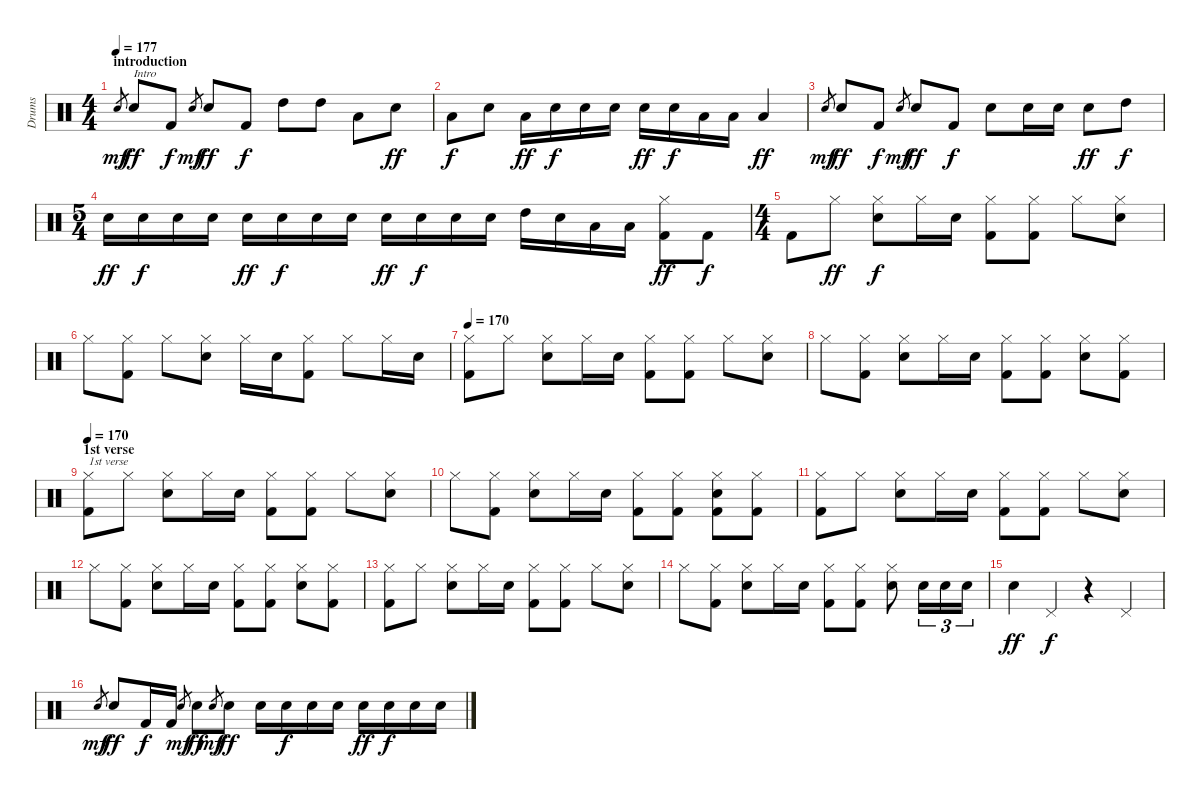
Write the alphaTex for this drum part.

\track ("Drums" "Drums") {instrument percussion}
\staff {score}
\articulation defaults
\ts (4 4)
\section ("" "introduction")
\tempo 177
\tempo 182
\tempo 177
\clef neutral
\ks c "Electric Snare (hit)".8{gr dy mf} "Electric Snare (hit)".8{txt "Intro" dy ff} "Kick (hit) 2".8{dy f} "Electric Snare (hit)".8{gr dy mf} "Electric Snare (hit)".8{dy ff} "Kick (hit) 2".8{dy f} "High Tom (hit)".8 "High Tom (hit)".8 "Low Tom (hit)".8 "Electric Snare (hit)".8{dy ff}
|
"Low Tom (hit)".8{dy f} "Electric Snare (hit)".8 "Low Tom (hit)".16{dy ff} "Electric Snare (hit)".16{dy f} "Electric Snare (hit)".16 "Electric Snare (hit)".16 "Electric Snare (hit)".16{dy ff} "Electric Snare (hit)".16{dy f} "Low Tom (hit)".16 "Low Tom (hit)".16 "Low Tom (hit)".4{dy ff} |
"Electric Snare (hit)".8{gr dy mf} "Electric Snare (hit)".8{dy ff} "Kick (hit) 2".8{dy f} "Electric Snare (hit)".8{gr dy mf} "Electric Snare (hit)".8{dy ff} "Kick (hit) 2".8{dy f} "Electric Snare (hit)".8 "Electric Snare (hit)".16 "Electric Snare (hit)".16 "Electric Snare (hit)".8{dy ff} "High Tom (hit)".8{dy f} |
\ts (5 4)
"Electric Snare (hit)".16{dy ff} "Electric Snare (hit)".16{dy f} "Electric Snare (hit)".16 "Electric Snare (hit)".16 "Electric Snare (hit)".16{dy ff} "Electric Snare (hit)".16{dy f} "Electric Snare (hit)".16 "Electric Snare (hit)".16 "Electric Snare (hit)".16{dy ff} "Electric Snare (hit)".16{dy f} "Electric Snare (hit)".16 "Electric Snare (hit)".16 "High Tom (hit)".16 "Electric Snare (hit)".16 "Low Tom (hit)".16 "Low Tom (hit)".16 ("Hi-Hat (closed)" "Kick (hit) 2").8{dy ff} "Kick (hit) 2".8{dy f} |
\ts (4 4)
"Kick (hit) 2".8 "Hi-Hat (closed)".8{dy ff} ("Hi-Hat (closed)" "Electric Snare (hit)").8{dy f} "Hi-Hat (closed)".16 "Electric Snare (hit)".16 ("Hi-Hat (closed)" "Kick (hit) 2").8 ("Hi-Hat (closed)" "Kick (hit) 2").8 "Hi-Hat (closed)".8 ("Hi-Hat (closed)" "Electric Snare (hit)").8 |
"Hi-Hat (closed)".8 ("Hi-Hat (closed)" "Kick (hit) 2").8 "Hi-Hat (closed)".8 ("Hi-Hat (closed)" "Electric Snare (hit)").8 "Hi-Hat (closed)".16 "Electric Snare (hit)".16 ("Hi-Hat (closed)" "Kick (hit) 2").8 "Hi-Hat (closed)".8 "Hi-Hat (closed)".16 "Electric Snare (hit)".16 |
\tempo 170
("Hi-Hat (closed)" "Kick (hit) 2").8 "Hi-Hat (closed)".8 ("Hi-Hat (closed)" "Electric Snare (hit)").8 "Hi-Hat (closed)".16 "Electric Snare (hit)".16 ("Hi-Hat (closed)" "Kick (hit) 2").8 ("Hi-Hat (closed)" "Kick (hit) 2").8 "Hi-Hat (closed)".8 ("Hi-Hat (closed)" "Electric Snare (hit)").8 |
"Hi-Hat (closed)".8 ("Hi-Hat (closed)" "Kick (hit) 2").8 ("Hi-Hat (closed)" "Electric Snare (hit)").8 "Hi-Hat (closed)".16 "Electric Snare (hit)".16 ("Hi-Hat (closed)" "Kick (hit) 2").8 ("Hi-Hat (closed)" "Kick (hit) 2").8 ("Hi-Hat (closed)" "Electric Snare (hit)").8 ("Hi-Hat (closed)" "Kick (hit) 2").8 |
\section ("" "1st verse")
\tempo 170
("Hi-Hat (closed)" "Kick (hit) 2").8{txt "1st verse"} "Hi-Hat (closed)".8 ("Hi-Hat (closed)" "Electric Snare (hit)").8 "Hi-Hat (closed)".16 "Electric Snare (hit)".16 ("Hi-Hat (closed)" "Kick (hit) 2").8 ("Hi-Hat (closed)" "Kick (hit) 2").8 "Hi-Hat (closed)".8 ("Hi-Hat (closed)" "Electric Snare (hit)").8 |
"Hi-Hat (closed)".8 ("Hi-Hat (closed)" "Kick (hit) 2").8 ("Hi-Hat (closed)" "Electric Snare (hit)").8 "Hi-Hat (closed)".16 "Electric Snare (hit)".16 ("Hi-Hat (closed)" "Kick (hit) 2").8 ("Hi-Hat (closed)" "Kick (hit) 2").8 ("Hi-Hat (closed)" "Electric Snare (hit)" "Kick (hit) 2").8 ("Hi-Hat (closed)" "Kick (hit) 2").8 |
("Hi-Hat (closed)" "Kick (hit) 2").8 "Hi-Hat (closed)".8 ("Hi-Hat (closed)" "Electric Snare (hit)").8 "Hi-Hat (closed)".16 "Electric Snare (hit)".16 ("Hi-Hat (closed)" "Kick (hit) 2").8 ("Hi-Hat (closed)" "Kick (hit) 2").8 "Hi-Hat (closed)".8 ("Hi-Hat (closed)" "Electric Snare (hit)").8 |
"Hi-Hat (closed)".8 ("Hi-Hat (closed)" "Kick (hit) 2").8 ("Hi-Hat (closed)" "Electric Snare (hit)").8 "Hi-Hat (closed)".16 "Electric Snare (hit)".16 ("Hi-Hat (closed)" "Kick (hit) 2").8 ("Hi-Hat (closed)" "Kick (hit) 2").8 ("Hi-Hat (closed)" "Electric Snare (hit)").8 ("Hi-Hat (closed)" "Kick (hit) 2").8 |
("Hi-Hat (closed)" "Kick (hit) 2").8 "Hi-Hat (closed)".8 ("Hi-Hat (closed)" "Electric Snare (hit)").8 "Hi-Hat (closed)".16 "Electric Snare (hit)".16 ("Hi-Hat (closed)" "Kick (hit) 2").8 ("Hi-Hat (closed)" "Kick (hit) 2").8 "Hi-Hat (closed)".8 ("Hi-Hat (closed)" "Electric Snare (hit)").8 |
"Hi-Hat (closed)".8 ("Hi-Hat (closed)" "Kick (hit) 2").8 ("Hi-Hat (closed)" "Electric Snare (hit)").8 "Hi-Hat (closed)".16 "Electric Snare (hit)".16 ("Hi-Hat (closed)" "Kick (hit) 2").8 ("Hi-Hat (closed)" "Kick (hit) 2").8 ("Hi-Hat (closed)" "Electric Snare (hit)").8 "Electric Snare (hit)".16{tu (3 2)} "Electric Snare (hit)".16{tu (3 2)} "Electric Snare (hit)".16{tu (3 2)} |
"Electric Snare (hit)".4{dy ff} "Pedal Hi-Hat (hit)".4{dy f} r.4 "Pedal Hi-Hat (hit)".4 |
"Electric Snare (hit)".8{gr dy mf} "Electric Snare (hit)".8{dy ff} "Kick (hit) 2".16{dy f} "Kick (hit) 2".16 "Electric Snare (hit)".8{gr dy mf} "Electric Snare (hit)".8{dy ff} "Electric Snare (hit)".8{gr dy mf} "Electric Snare (hit)".8{dy ff} "Electric Snare (hit)".16 "Electric Snare (hit)".16{dy f} "Electric Snare (hit)".16 "Electric Snare (hit)".16 "Electric Snare (hit)".16{dy ff} "Electric Snare (hit)".16{dy f} "Electric Snare (hit)".16 "Electric Snare (hit)".16
